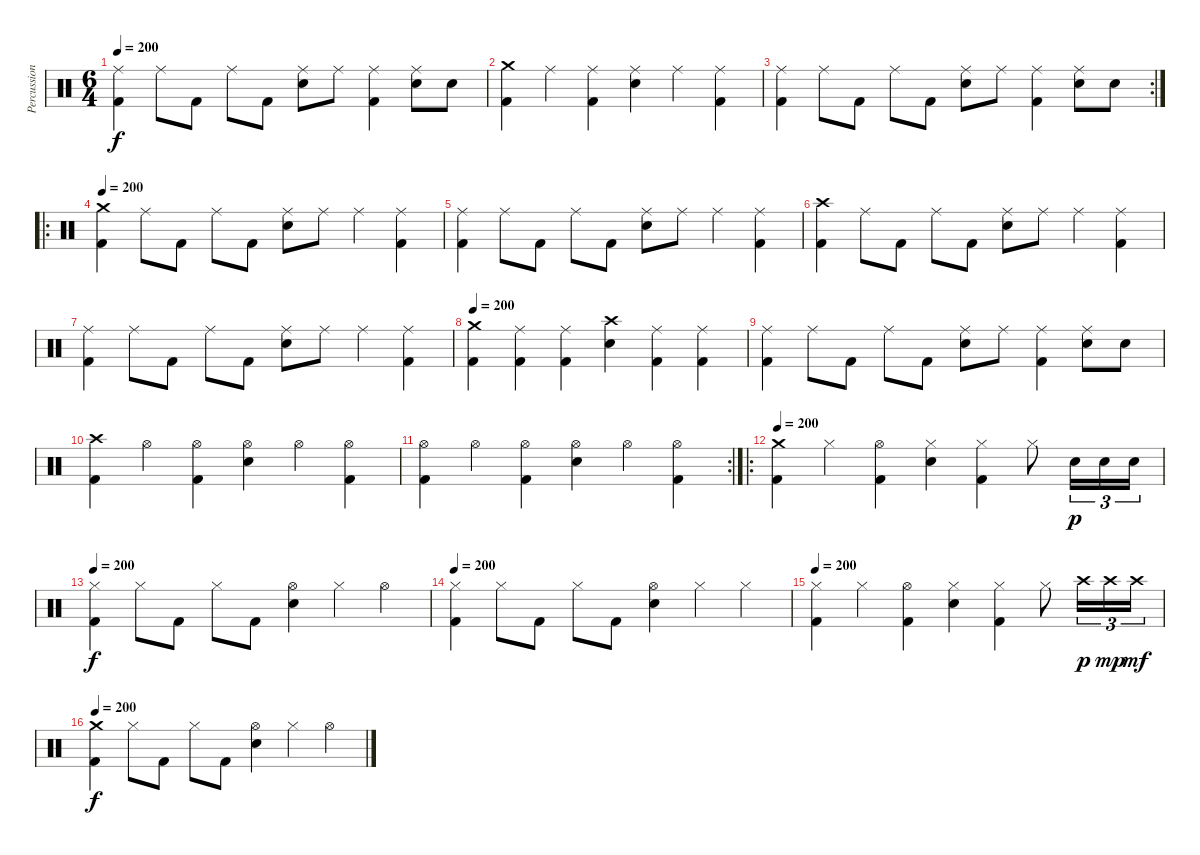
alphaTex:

\track ("Percussions" "Percussion") {instrument percussion}
\staff {score}
\articulation defaults
\ts (6 4)
\tempo 200
\clef neutral
\ks c
("Ride (middle)" "Kick (hit) 2").4{dy f} "Ride (middle)".8 "Kick (hit) 2".8 "Ride (middle)".8 "Kick (hit) 2".8 ("Ride (middle)" "Electric Snare (hit)").8 "Ride (middle)".8 ("Ride (middle)" "Kick (hit) 2").4 ("Ride (middle)" "Electric Snare (hit)").8 "Electric Snare (hit)".8 |
("Crash medium (hit)" "Kick (hit) 2").4 "Ride (middle)".4 ("Ride (middle)" "Kick (hit) 2").4 ("Ride (middle)" "Electric Snare (hit)").4 "Ride (middle)".4 ("Ride (middle)" "Kick (hit) 2").4 |
\rc 2
("Ride (middle)" "Kick (hit) 2").4 "Ride (middle)".8 "Kick (hit) 2".8 "Ride (middle)".8 "Kick (hit) 2".8 ("Ride (middle)" "Electric Snare (hit)").8 "Ride (middle)".8 ("Ride (middle)" "Kick (hit) 2").4 ("Ride (middle)" "Electric Snare (hit)").8 "Electric Snare (hit)".8 |
\ro
\tempo 200
("Crash medium (hit)" "Kick (hit) 2").4 "Ride (middle)".8 "Kick (hit) 2".8 "Ride (middle)".8 "Kick (hit) 2".8 ("Ride (middle)" "Electric Snare (hit)").8 "Ride (middle)".8 "Ride (middle)".4 ("Ride (middle)" "Kick (hit) 2").4 |
("Ride (middle)" "Kick (hit) 2").4 "Ride (middle)".8 "Kick (hit) 2".8 "Ride (middle)".8 "Kick (hit) 2".8 ("Ride (middle)" "Electric Snare (hit)").8 "Ride (middle)".8 "Ride (middle)".4 ("Ride (middle)" "Kick (hit) 2").4 |
("Crash high (hit)" "Kick (hit) 2").4 "Ride (middle)".8 "Kick (hit) 2".8 "Ride (middle)".8 "Kick (hit) 2".8 ("Ride (middle)" "Electric Snare (hit)").8 "Ride (middle)".8 "Ride (middle)".4 ("Ride (middle)" "Kick (hit) 2").4 |
("Ride (middle)" "Kick (hit) 2").4 "Ride (middle)".8 "Kick (hit) 2".8 "Ride (middle)".8 "Kick (hit) 2".8 ("Ride (middle)" "Electric Snare (hit)").8 "Ride (middle)".8 "Ride (middle)".4 ("Ride (middle)" "Kick (hit) 2").4 |
\tempo 200
("Crash medium (hit)" "Kick (hit) 2").4 ("Ride (middle)" "Kick (hit) 2").4 ("Ride (middle)" "Kick (hit) 2").4 ("Crash high (hit)" "Electric Snare (hit)").4 ("Ride (middle)" "Kick (hit) 2").4 ("Ride (middle)" "Kick (hit) 2").4 |
("Ride (middle)" "Kick (hit) 2").4 "Ride (middle)".8 "Kick (hit) 2".8 "Ride (middle)".8 "Kick (hit) 2".8 ("Ride (middle)" "Electric Snare (hit)").8 "Ride (middle)".8 ("Ride (middle)" "Kick (hit) 2").4 ("Ride (middle)" "Electric Snare (hit)").8 "Electric Snare (hit)".8 |
("Crash high (hit)" "Kick (hit) 2").4 "Hi-Hat (open)".4 ("Hi-Hat (open)" "Kick (hit) 2").4 ("Hi-Hat (open)" "Electric Snare (hit)").4 "Hi-Hat (open)".4 ("Hi-Hat (open)" "Kick (hit) 2").4 |
\rc 2
("Hi-Hat (open)" "Kick (hit) 2").4 "Hi-Hat (open)".4 ("Hi-Hat (open)" "Kick (hit) 2").4 ("Hi-Hat (open)" "Electric Snare (hit)").4 "Hi-Hat (open)".4 ("Hi-Hat (open)" "Kick (hit) 2").4 |
\ro
\tempo 200
("Crash medium (hit)" "Kick (hit) 2").4 "Hi-Hat (closed)".4 ("Hi-Hat (open)" "Kick (hit) 2").4 ("Hi-Hat (closed)" "Electric Snare (hit)").4 ("Hi-Hat (closed)" "Kick (hit) 2").4 "Hi-Hat (closed)".8 "Electric Snare (hit)".16{tu (3 2) dy p} "Electric Snare (hit)".16{tu (3 2)} "Electric Snare (hit)".16{tu (3 2)} |
\tempo 200
("Hi-Hat (closed)" "Kick (hit) 2").4{dy f} "Hi-Hat (closed)".8 "Kick (hit) 2".8 "Hi-Hat (closed)".8 "Kick (hit) 2".8 ("Hi-Hat (open)" "Electric Snare (hit)").4 "Hi-Hat (closed)".4 "Hi-Hat (open)".4 |
\tempo 200
("Hi-Hat (closed)" "Kick (hit) 2").4 "Hi-Hat (closed)".8 "Kick (hit) 2".8 "Hi-Hat (closed)".8 "Kick (hit) 2".8 ("Hi-Hat (open)" "Electric Snare (hit)").4 "Hi-Hat (closed)".4 "Hi-Hat (closed)".4 |
\tempo 200
("Hi-Hat (closed)" "Kick (hit) 2").4 "Hi-Hat (closed)".4 ("Hi-Hat (open)" "Kick (hit) 2").4 ("Hi-Hat (closed)" "Electric Snare (hit)").4 ("Hi-Hat (closed)" "Kick (hit) 2").4 "Hi-Hat (closed)".8 "Crash high (hit)".16{tu (3 2) dy p} "Crash high (hit)".16{tu (3 2) dy mp} "Crash high (hit)".16{tu (3 2) dy mf} |
\tempo 200
("Crash medium (hit)" "Kick (hit) 2").4{dy f} "Hi-Hat (closed)".8 "Kick (hit) 2".8 "Hi-Hat (closed)".8 "Kick (hit) 2".8 ("Hi-Hat (open)" "Electric Snare (hit)").4 "Hi-Hat (closed)".4 "Hi-Hat (open)".4
